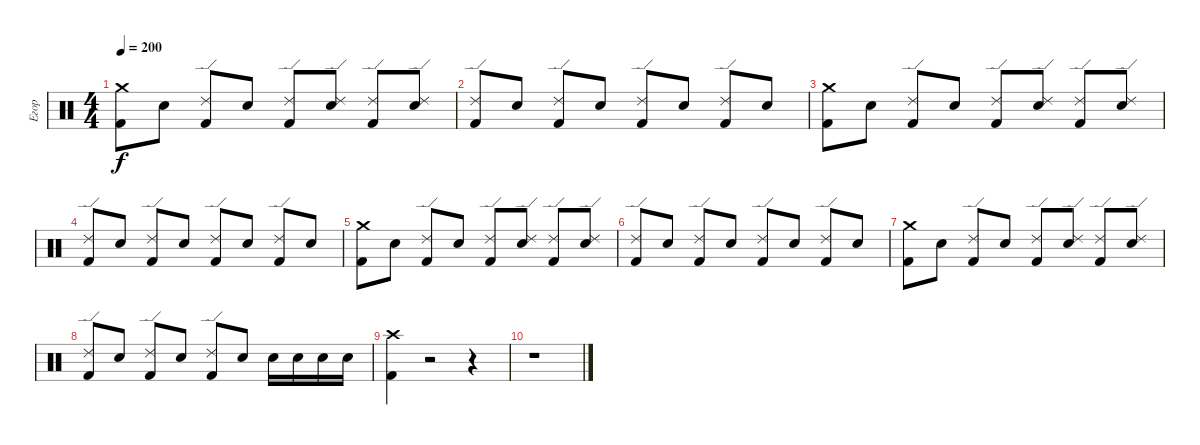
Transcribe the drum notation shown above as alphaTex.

\track ("Егор" "Егор") {instrument percussion}
\staff {score}
\articulation defaults
\ts (4 4)
\tempo 200
\clef neutral
\ks c
("Crash medium (hit)" "Kick (hit) 2").8{dy f} "Snare (hit) 2".8 ("Ride (edge) 2" "Kick (hit) 2").8 "Snare (hit) 2".8 ("Ride (edge) 2" "Kick (hit) 2").8 ("Ride (edge) 2" "Snare (hit) 2").8 ("Ride (edge) 2" "Kick (hit) 2").8 ("Ride (edge) 2" "Snare (hit) 2").8 |
("Ride (edge) 2" "Kick (hit) 2").8 "Snare (hit) 2".8 ("Ride (edge) 2" "Kick (hit) 2").8 "Snare (hit) 2".8 ("Ride (edge) 2" "Kick (hit) 2").8 "Snare (hit) 2".8 ("Ride (edge) 2" "Kick (hit) 2").8 "Snare (hit) 2".8 |
("Crash medium (hit)" "Kick (hit) 2").8 "Snare (hit) 2".8 ("Ride (edge) 2" "Kick (hit) 2").8 "Snare (hit) 2".8 ("Ride (edge) 2" "Kick (hit) 2").8 ("Ride (edge) 2" "Snare (hit) 2").8 ("Ride (edge) 2" "Kick (hit) 2").8 ("Ride (edge) 2" "Snare (hit) 2").8 |
("Ride (edge) 2" "Kick (hit) 2").8 "Snare (hit) 2".8 ("Ride (edge) 2" "Kick (hit) 2").8 "Snare (hit) 2".8 ("Ride (edge) 2" "Kick (hit) 2").8 "Snare (hit) 2".8 ("Ride (edge) 2" "Kick (hit) 2").8 "Snare (hit) 2".8 |
("Crash medium (hit)" "Kick (hit) 2").8 "Snare (hit) 2".8 ("Ride (edge) 2" "Kick (hit) 2").8 "Snare (hit) 2".8 ("Ride (edge) 2" "Kick (hit) 2").8 ("Ride (edge) 2" "Snare (hit) 2").8 ("Ride (edge) 2" "Kick (hit) 2").8 ("Ride (edge) 2" "Snare (hit) 2").8 |
("Ride (edge) 2" "Kick (hit) 2").8 "Snare (hit) 2".8 ("Ride (edge) 2" "Kick (hit) 2").8 "Snare (hit) 2".8 ("Ride (edge) 2" "Kick (hit) 2").8 "Snare (hit) 2".8 ("Ride (edge) 2" "Kick (hit) 2").8 "Snare (hit) 2".8 |
("Crash medium (hit)" "Kick (hit) 2").8 "Snare (hit) 2".8 ("Ride (edge) 2" "Kick (hit) 2").8 "Snare (hit) 2".8 ("Ride (edge) 2" "Kick (hit) 2").8 ("Ride (edge) 2" "Snare (hit) 2").8 ("Ride (edge) 2" "Kick (hit) 2").8 ("Ride (edge) 2" "Snare (hit) 2").8 |
("Ride (edge) 2" "Kick (hit) 2").8 "Snare (hit) 2".8 ("Ride (edge) 2" "Kick (hit) 2").8 "Snare (hit) 2".8 ("Ride (edge) 2" "Kick (hit) 2").8 "Snare (hit) 2".8 "Snare (hit) 2".16 "Snare (hit) 2".16 "Snare (hit) 2".16 "Snare (hit) 2".16 |
("Crash high (hit)" "Kick (hit) 2").4 r.2 r.4 |
r.1
